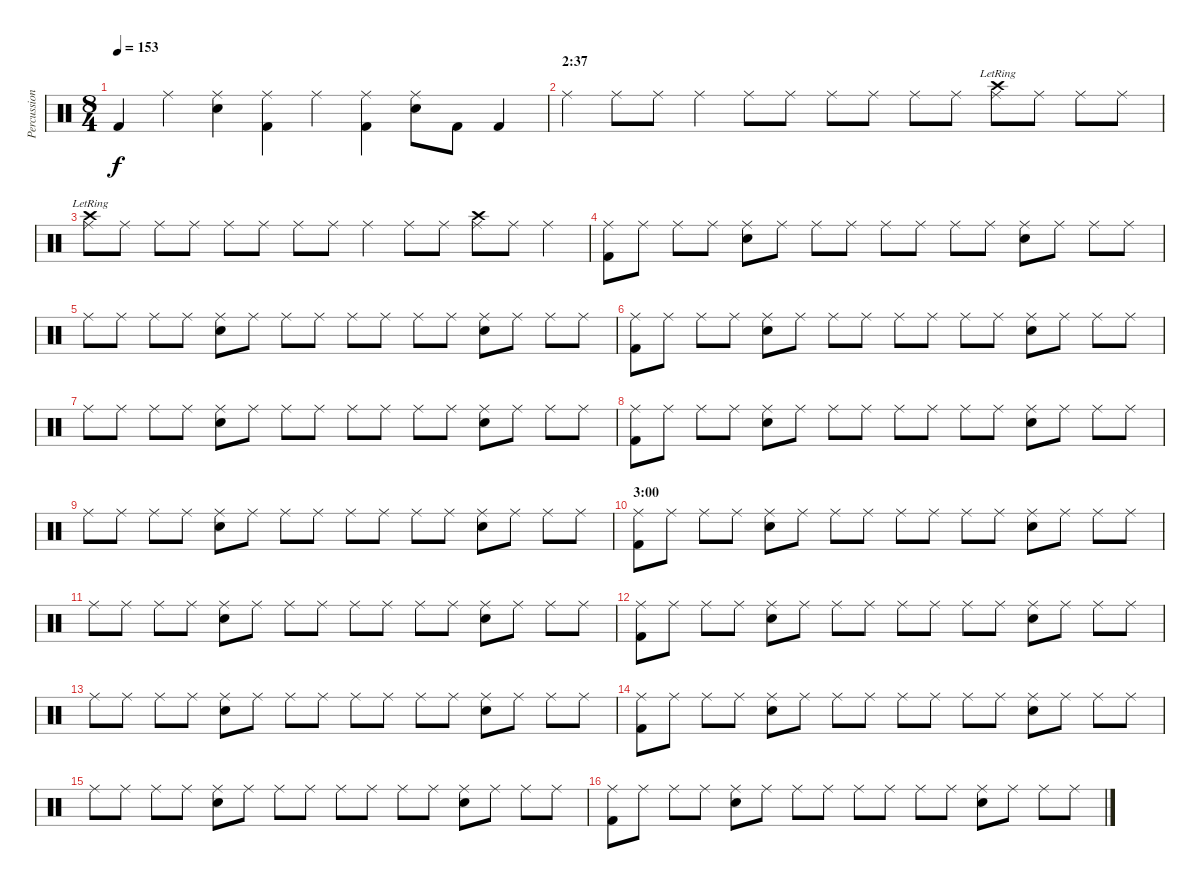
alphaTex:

\track ("Percussion" "Percussion") {instrument percussion}
\staff {score}
\articulation defaults
\ts (8 4)
\tempo 153
\clef neutral
\ks c "Kick (hit) 2".4{dy f} "Ride (middle)".4
("Ride (middle)" "Snare (hit) 2").4 ("Ride (middle)" "Kick (hit) 2").4 "Ride (middle)".4 ("Ride (middle)" "Kick (hit) 2").4 ("Ride (middle)" "Snare (hit) 2").8 "Kick (hit) 2".8 "Kick (hit) 2".4 |
\section ("" "2:37")
"Ride (middle)".4 "Ride (middle)".8 "Ride (middle)".8 "Ride (middle)".4 "Ride (middle)".8 "Ride (middle)".8 "Ride (middle)".8 "Ride (middle)".8 "Ride (middle)".8 "Ride (middle)".8 ("Ride (middle)" "Crash high (hit)"{lr}).8 "Ride (middle)".8 "Ride (middle)".8 "Ride (middle)".8 |
("Ride (middle)" "Crash high (hit)"{lr}).8 "Ride (middle)".8 "Ride (middle)".8 "Ride (middle)".8 "Ride (middle)".8 "Ride (middle)".8 "Ride (middle)".8 "Ride (middle)".8 "Ride (middle)".4 "Ride (middle)".8 "Ride (middle)".8 ("Ride (middle)" "Crash high (hit)").8 "Ride (middle)".8 "Ride (middle)".4 |
("Ride (middle)" "Kick (hit) 2").8 "Ride (middle)".8 "Ride (middle)".8 "Ride (middle)".8 ("Ride (middle)" "Snare (hit) 2").8 "Ride (middle)".8 "Ride (middle)".8 "Ride (middle)".8 "Ride (middle)".8 "Ride (middle)".8 "Ride (middle)".8 "Ride (middle)".8 ("Ride (middle)" "Snare (hit) 2").8 "Ride (middle)".8 "Ride (middle)".8 "Ride (middle)".8 |
"Ride (middle)".8 "Ride (middle)".8 "Ride (middle)".8 "Ride (middle)".8 ("Ride (middle)" "Snare (hit) 2").8 "Ride (middle)".8 "Ride (middle)".8 "Ride (middle)".8 "Ride (middle)".8 "Ride (middle)".8 "Ride (middle)".8 "Ride (middle)".8 ("Ride (middle)" "Snare (hit) 2").8 "Ride (middle)".8 "Ride (middle)".8 "Ride (middle)".8 |
("Ride (middle)" "Kick (hit) 2").8 "Ride (middle)".8 "Ride (middle)".8 "Ride (middle)".8 ("Ride (middle)" "Snare (hit) 2").8 "Ride (middle)".8 "Ride (middle)".8 "Ride (middle)".8 "Ride (middle)".8 "Ride (middle)".8 "Ride (middle)".8 "Ride (middle)".8 ("Ride (middle)" "Snare (hit) 2").8 "Ride (middle)".8 "Ride (middle)".8 "Ride (middle)".8 |
"Ride (middle)".8 "Ride (middle)".8 "Ride (middle)".8 "Ride (middle)".8 ("Ride (middle)" "Snare (hit) 2").8 "Ride (middle)".8 "Ride (middle)".8 "Ride (middle)".8 "Ride (middle)".8 "Ride (middle)".8 "Ride (middle)".8 "Ride (middle)".8 ("Ride (middle)" "Snare (hit) 2").8 "Ride (middle)".8 "Ride (middle)".8 "Ride (middle)".8 |
("Ride (middle)" "Kick (hit) 2").8 "Ride (middle)".8 "Ride (middle)".8 "Ride (middle)".8 ("Ride (middle)" "Snare (hit) 2").8 "Ride (middle)".8 "Ride (middle)".8 "Ride (middle)".8 "Ride (middle)".8 "Ride (middle)".8 "Ride (middle)".8 "Ride (middle)".8 ("Ride (middle)" "Snare (hit) 2").8 "Ride (middle)".8 "Ride (middle)".8 "Ride (middle)".8 |
"Ride (middle)".8 "Ride (middle)".8 "Ride (middle)".8 "Ride (middle)".8 ("Ride (middle)" "Snare (hit) 2").8 "Ride (middle)".8 "Ride (middle)".8 "Ride (middle)".8 "Ride (middle)".8 "Ride (middle)".8 "Ride (middle)".8 "Ride (middle)".8 ("Ride (middle)" "Snare (hit) 2").8 "Ride (middle)".8 "Ride (middle)".8 "Ride (middle)".8 |
\section ("" "3:00")
("Ride (middle)" "Kick (hit) 2").8 "Ride (middle)".8 "Ride (middle)".8 "Ride (middle)".8 ("Ride (middle)" "Snare (hit) 2").8 "Ride (middle)".8 "Ride (middle)".8 "Ride (middle)".8 "Ride (middle)".8 "Ride (middle)".8 "Ride (middle)".8 "Ride (middle)".8 ("Ride (middle)" "Snare (hit) 2").8 "Ride (middle)".8 "Ride (middle)".8 "Ride (middle)".8 |
"Ride (middle)".8 "Ride (middle)".8 "Ride (middle)".8 "Ride (middle)".8 ("Ride (middle)" "Snare (hit) 2").8 "Ride (middle)".8 "Ride (middle)".8 "Ride (middle)".8 "Ride (middle)".8 "Ride (middle)".8 "Ride (middle)".8 "Ride (middle)".8 ("Ride (middle)" "Snare (hit) 2").8 "Ride (middle)".8 "Ride (middle)".8 "Ride (middle)".8 |
("Ride (middle)" "Kick (hit) 2").8 "Ride (middle)".8 "Ride (middle)".8 "Ride (middle)".8 ("Ride (middle)" "Snare (hit) 2").8 "Ride (middle)".8 "Ride (middle)".8 "Ride (middle)".8 "Ride (middle)".8 "Ride (middle)".8 "Ride (middle)".8 "Ride (middle)".8 ("Ride (middle)" "Snare (hit) 2").8 "Ride (middle)".8 "Ride (middle)".8 "Ride (middle)".8 |
"Ride (middle)".8 "Ride (middle)".8 "Ride (middle)".8 "Ride (middle)".8 ("Ride (middle)" "Snare (hit) 2").8 "Ride (middle)".8 "Ride (middle)".8 "Ride (middle)".8 "Ride (middle)".8 "Ride (middle)".8 "Ride (middle)".8 "Ride (middle)".8 ("Ride (middle)" "Snare (hit) 2").8 "Ride (middle)".8 "Ride (middle)".8 "Ride (middle)".8 |
("Ride (middle)" "Kick (hit) 2").8 "Ride (middle)".8 "Ride (middle)".8 "Ride (middle)".8 ("Ride (middle)" "Snare (hit) 2").8 "Ride (middle)".8 "Ride (middle)".8 "Ride (middle)".8 "Ride (middle)".8 "Ride (middle)".8 "Ride (middle)".8 "Ride (middle)".8 ("Ride (middle)" "Snare (hit) 2").8 "Ride (middle)".8 "Ride (middle)".8 "Ride (middle)".8 |
"Ride (middle)".8 "Ride (middle)".8 "Ride (middle)".8 "Ride (middle)".8 ("Ride (middle)" "Snare (hit) 2").8 "Ride (middle)".8 "Ride (middle)".8 "Ride (middle)".8 "Ride (middle)".8 "Ride (middle)".8 "Ride (middle)".8 "Ride (middle)".8 ("Ride (middle)" "Snare (hit) 2").8 "Ride (middle)".8 "Ride (middle)".8 "Ride (middle)".8 |
("Ride (middle)" "Kick (hit) 2").8 "Ride (middle)".8 "Ride (middle)".8 "Ride (middle)".8 ("Ride (middle)" "Snare (hit) 2").8 "Ride (middle)".8 "Ride (middle)".8 "Ride (middle)".8 "Ride (middle)".8 "Ride (middle)".8 "Ride (middle)".8 "Ride (middle)".8 ("Ride (middle)" "Snare (hit) 2").8 "Ride (middle)".8 "Ride (middle)".8 "Ride (middle)".8
